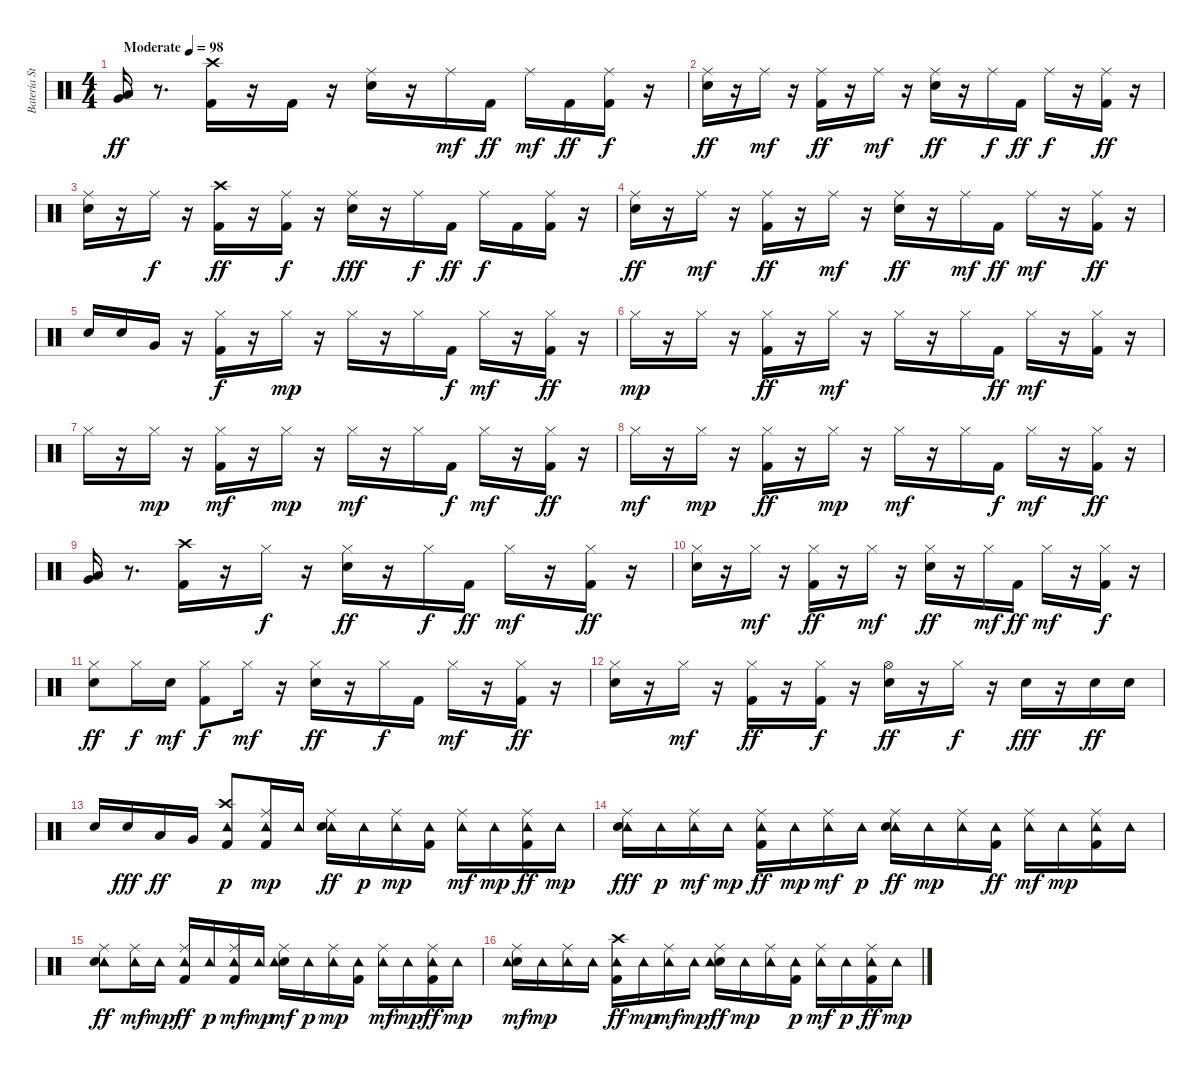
\track ("Batería Standard" "Batería St") {instrument percussion}
\staff {score}
\articulation defaults
\ts (4 4)
\tempo (98 "Moderate")
\clef neutral
\ks c
("Low Floor Tom (hit)" "Very Low Tom (hit)").16{dy ff} r.8{d} ("Kick (hit) 2" "Crash high (hit)").16 r.16 "Kick (hit) 2".16 r.16 ("Electric Snare (hit)" "Ride (middle)").16 r.16 "Ride (middle)".16{dy mf} "Kick (hit) 2".16{dy ff} "Ride (middle)".16{dy mf} "Kick (hit) 2".16{dy ff} ("Kick (hit) 2" "Ride (middle)").16{dy f} r.16 |
("Electric Snare (hit)" "Ride (middle)").16{dy ff} r.16 "Ride (middle)".16{dy mf} r.16 ("Kick (hit) 2" "Ride (middle)").16{dy ff} r.16 "Ride (middle)".16{dy mf} r.16 ("Electric Snare (hit)" "Ride (middle)").16{dy ff} r.16 "Ride (middle)".16{dy f} "Kick (hit) 2".16{dy ff} "Ride (middle)".16{dy f} r.16 ("Kick (hit) 2" "Ride (middle)").16{dy ff} r.16 |
("Ride (middle)" "Electric Snare (hit)").16 r.16 "Ride (middle)".16{dy f} r.16 ("Kick (hit) 2" "Crash high (hit)").16{dy ff} r.16 ("Kick (hit) 2" "Ride (middle)").16{dy f} r.16 ("Ride (middle)" "Electric Snare (hit)").16{dy fff} r.16 "Ride (middle)".16{dy f} "Kick (hit) 2".16{dy ff} "Ride (middle)".16{dy f} "Kick (hit) 2".16 ("Kick (hit) 2" "Ride (middle)").16 r.16 |
("Electric Snare (hit)" "Ride (middle)").16{dy ff} r.16 "Ride (middle)".16{dy mf} r.16 ("Kick (hit) 2" "Ride (middle)").16{dy ff} r.16 "Ride (middle)".16{dy mf} r.16 ("Ride (middle)" "Electric Snare (hit)").16{dy ff} r.16 "Ride (middle)".16{dy mf} "Kick (hit) 2".16{dy ff} "Ride (middle)".16{dy mf} r.16 ("Kick (hit) 2" "Ride (middle)").16{dy ff} r.16 |
"Electric Snare (hit)".16 "Electric Snare (hit)".16 "Very Low Tom (hit)".16 r.16 ("Kick (hit) 2" "Hi-Hat (closed)").16{dy f} r.16 "Hi-Hat (closed)".16{dy mp} r.16 "Hi-Hat (closed)".16 r.16 "Hi-Hat (closed)".16 "Kick (hit) 2".16{dy f} "Hi-Hat (closed)".16{dy mf} r.16 ("Hi-Hat (closed)" "Kick (hit) 2").16{dy ff} r.16 |
"Hi-Hat (closed)".16{dy mp} r.16 "Hi-Hat (closed)".16 r.16 ("Hi-Hat (closed)" "Kick (hit) 2").16{dy ff} r.16 "Hi-Hat (closed)".16{dy mf} r.16 "Hi-Hat (closed)".16 r.16 "Hi-Hat (closed)".16 "Kick (hit) 2".16{dy ff} "Hi-Hat (closed)".16{dy mf} r.16 ("Kick (hit) 2" "Hi-Hat (closed)").16 r.16 |
"Hi-Hat (closed)".16 r.16 "Hi-Hat (closed)".16{dy mp} r.16 ("Kick (hit) 2" "Hi-Hat (closed)").16{dy mf} r.16 "Hi-Hat (closed)".16{dy mp} r.16 "Hi-Hat (closed)".16{dy mf} r.16 "Hi-Hat (closed)".16 "Kick (hit) 2".16{dy f} "Hi-Hat (closed)".16{dy mf} r.16 ("Hi-Hat (closed)" "Kick (hit) 2").16{dy ff} r.16 |
"Hi-Hat (closed)".16{dy mf} r.16 "Hi-Hat (closed)".16{dy mp} r.16 ("Hi-Hat (closed)" "Kick (hit) 2").16{dy ff} r.16 "Hi-Hat (closed)".16{dy mp} r.16 "Hi-Hat (closed)".16{dy mf} r.16 "Hi-Hat (closed)".16 "Kick (hit) 2".16{dy f} "Hi-Hat (closed)".16{dy mf} r.16 ("Hi-Hat (closed)" "Kick (hit) 2").16{dy ff} r.16 |
("Very Low Tom (hit)" "Low Floor Tom (hit)").16 r.8{d} ("Kick (hit) 2" "Crash high (hit)").16 r.16 "Hi-Hat (closed)".16{dy f} r.16 ("Electric Snare (hit)" "Hi-Hat (closed)").16{dy ff} r.16 "Hi-Hat (closed)".16{dy f} "Kick (hit) 2".16{dy ff} "Hi-Hat (closed)".16{dy mf} r.16 ("Kick (hit) 2" "Hi-Hat (closed)").16{dy ff} r.16 |
("Hi-Hat (closed)" "Electric Snare (hit)").16 r.16 "Hi-Hat (closed)".16{dy mf} r.16 ("Hi-Hat (closed)" "Kick (hit) 2").16{dy ff} r.16 "Hi-Hat (closed)".16{dy mf} r.16 ("Hi-Hat (closed)" "Electric Snare (hit)").16{dy ff} r.16 "Hi-Hat (closed)".16{dy mf} "Kick (hit) 2".16{dy ff} "Hi-Hat (closed)".16{dy mf} r.16 ("Kick (hit) 2" "Hi-Hat (closed)").16{dy f} r.16 |
("Electric Snare (hit)" "Hi-Hat (closed)").8{dy ff} "Hi-Hat (closed)".16{dy f} "Electric Snare (hit)".16{dy mf} ("Hi-Hat (closed)" "Kick (hit) 2").8{dy f} "Hi-Hat (closed)".16{dy mf} r.16 ("Hi-Hat (closed)" "Electric Snare (hit)").16{dy ff} r.16 "Hi-Hat (closed)".16{dy f} "Kick (hit) 2".16 "Hi-Hat (closed)".16{dy mf} r.16 ("Kick (hit) 2" "Hi-Hat (closed)").16{dy ff} r.16 |
("Electric Snare (hit)" "Hi-Hat (closed)").16 r.16 "Hi-Hat (closed)".16{dy mf} r.16 ("Hi-Hat (closed)" "Kick (hit) 2").16{dy ff} r.16 ("Kick (hit) 2" "Hi-Hat (closed)").16{dy f} r.16 ("Electric Snare (hit)" "Hi-Hat (open)").16{dy ff} r.16 "Hi-Hat (closed)".16{dy f} r.16 "Electric Snare (hit)".16{dy fff} r.16 "Electric Snare (hit)".16{dy ff} "Electric Snare (hit)".16 |
"Electric Snare (hit)".16 "Electric Snare (hit)".16{dy fff} "Low Tom (hit)".16{dy ff} "Very Low Tom (hit)".16 ("Kick (hit) 2" "Crash high (hit)" "Tambourine (hit)").8{dy p} ("Ride (middle)" "Kick (hit) 2" "Tambourine (hit)").16{dy mp} "Tambourine (hit)".16 ("Tambourine (hit)" "Ride (middle)" "Electric Snare (hit)").16{dy ff} "Tambourine (hit)".16{dy p} ("Tambourine (hit)" "Ride (middle)").16{dy mp} ("Kick (hit) 2" "Tambourine (hit)").16 ("Tambourine (hit)" "Ride (middle)").16{dy mf} "Tambourine (hit)".16{dy mp} ("Tambourine (hit)" "Ride (middle)" "Kick (hit) 2").16{dy ff} "Tambourine (hit)".16{dy mp} |
("Tambourine (hit)" "Electric Snare (hit)" "Ride (middle)").16{dy fff} "Tambourine (hit)".16{dy p} ("Tambourine (hit)" "Ride (middle)").16{dy mf} "Tambourine (hit)".16{dy mp} ("Tambourine (hit)" "Kick (hit) 2" "Ride (middle)").16{dy ff} "Tambourine (hit)".16{dy mp} ("Tambourine (hit)" "Ride (middle)").16{dy mf} "Tambourine (hit)".16{dy p} ("Tambourine (hit)" "Electric Snare (hit)" "Ride (middle)").16{dy ff} "Tambourine (hit)".16{dy mp} ("Ride (middle)" "Tambourine (hit)").16 ("Tambourine (hit)" "Kick (hit) 2").16{dy ff} ("Tambourine (hit)" "Ride (middle)").16{dy mf} "Tambourine (hit)".16{dy mp} ("Ride (middle)" "Kick (hit) 2" "Tambourine (hit)").16 "Tambourine (hit)".16 |
("Tambourine (hit)" "Ride (middle)" "Electric Snare (hit)").8{dy ff} ("Tambourine (hit)" "Ride (middle)").16{dy mf} "Tambourine (hit)".16{dy mp} ("Ride (middle)" "Tambourine (hit)" "Kick (hit) 2").16{dy ff} "Tambourine (hit)".16{dy p} ("Tambourine (hit)" "Ride (middle)" "Kick (hit) 2").16{dy mf} "Tambourine (hit)".16{dy mp} ("Ride (middle)" "Electric Snare (hit)" "Tambourine (hit)").16{dy mf} "Tambourine (hit)".16{dy p} ("Tambourine (hit)" "Ride (middle)").16{dy mp} ("Kick (hit) 2" "Tambourine (hit)").16 ("Tambourine (hit)" "Ride (middle)").16{dy mf} "Tambourine (hit)".16{dy mp} ("Tambourine (hit)" "Kick (hit) 2" "Ride (middle)").16{dy ff} "Tambourine (hit)".16{dy mp} |
("Electric Snare (hit)" "Tambourine (hit)" "Ride (middle)").16{dy mf} "Tambourine (hit)".16{dy mp} ("Ride (middle)" "Tambourine (hit)").16 "Tambourine (hit)".16 ("Tambourine (hit)" "Crash high (hit)" "Kick (hit) 2").16{dy ff} "Tambourine (hit)".16{dy mp} ("Tambourine (hit)" "Ride (middle)").16{dy mf} "Tambourine (hit)".16{dy mp} ("Electric Snare (hit)" "Tambourine (hit)" "Ride (middle)").16{dy ff} "Tambourine (hit)".16{dy mp} ("Tambourine (hit)" "Ride (middle)").16 ("Kick (hit) 2" "Tambourine (hit)").16{dy p} ("Ride (middle)" "Tambourine (hit)").16{dy mf} "Tambourine (hit)".16{dy p} ("Tambourine (hit)" "Ride (middle)" "Kick (hit) 2").16{dy ff} "Tambourine (hit)".16{dy mp}
